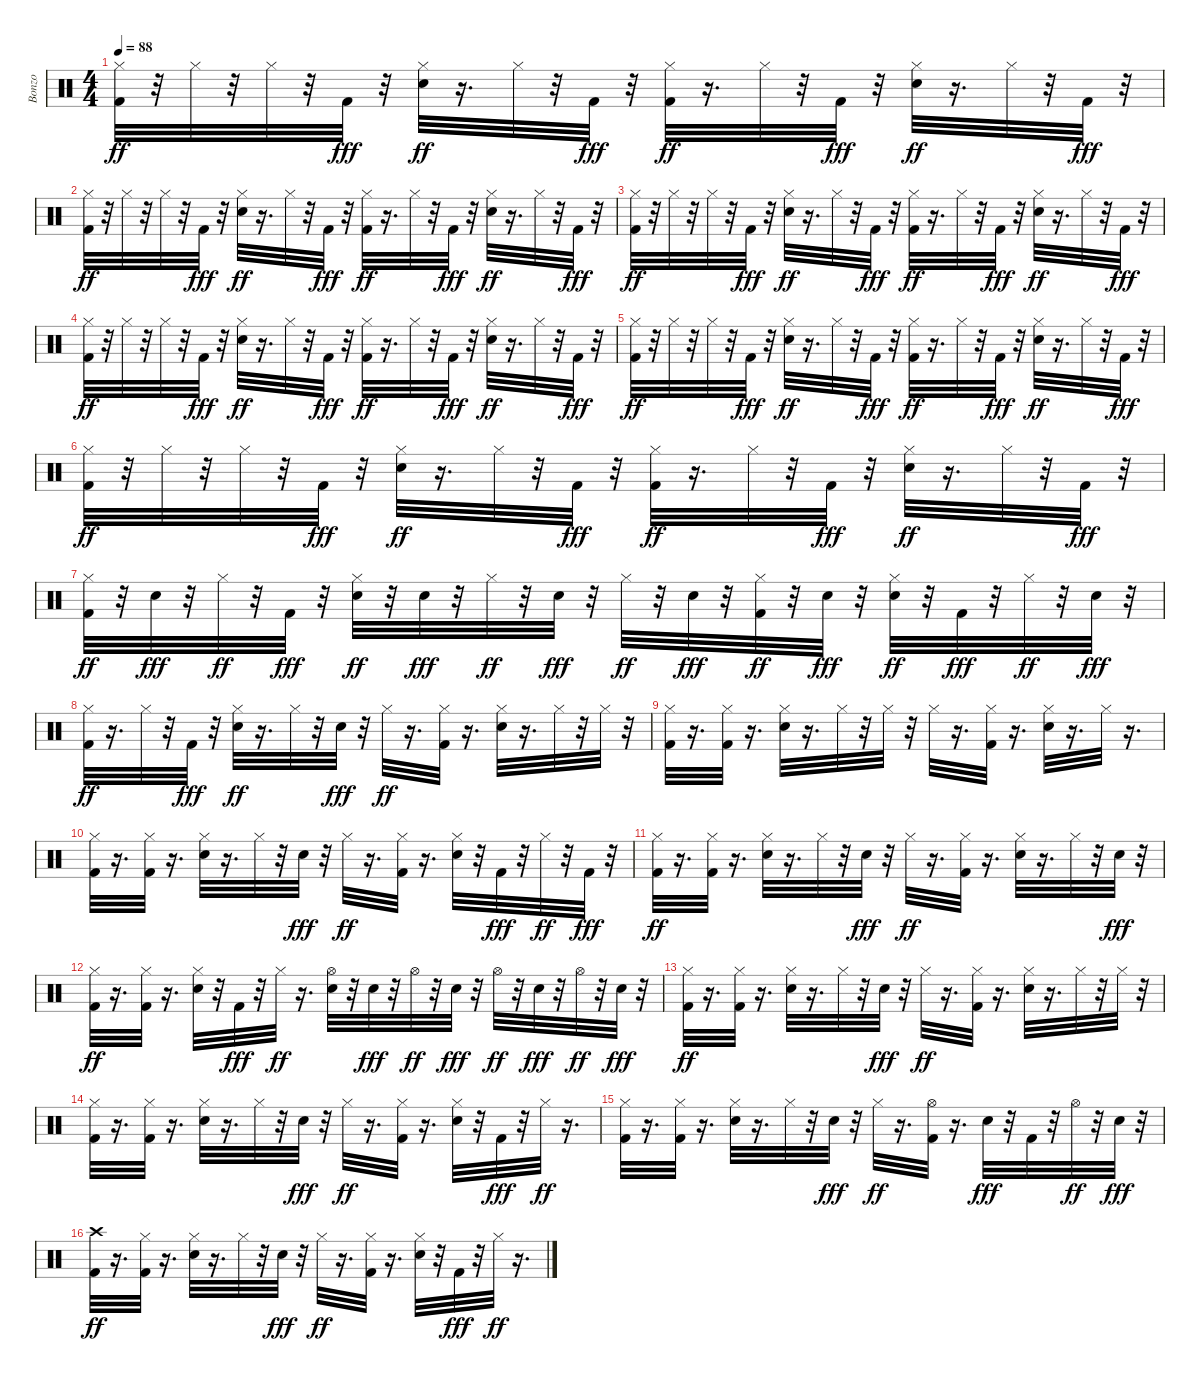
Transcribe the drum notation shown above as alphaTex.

\track ("Bonzo" "Bonzo") {instrument percussion}
\staff {score}
\articulation defaults
\ts (4 4)
\tempo 88
\clef neutral
\ks c
("Kick (hit) 2" "Hi-Hat (closed)").32{dy ff} r.32 "Hi-Hat (closed)".32 r.32 "Hi-Hat (closed)".32 r.32 "Kick (hit) 2".32{dy fff} r.32 ("Snare (hit) 2" "Hi-Hat (closed)").32{dy ff} r.16{d} "Hi-Hat (closed)".32 r.32 "Kick (hit) 2".32{dy fff} r.32 ("Kick (hit) 2" "Hi-Hat (closed)").32{dy ff} r.16{d} "Hi-Hat (closed)".32 r.32 "Kick (hit) 2".32{dy fff} r.32 ("Snare (hit) 2" "Hi-Hat (closed)").32{dy ff} r.16{d} "Hi-Hat (closed)".32 r.32 "Kick (hit) 2".32{dy fff} r.32 |
("Kick (hit) 2" "Hi-Hat (closed)").32{dy ff} r.32 "Hi-Hat (closed)".32 r.32 "Hi-Hat (closed)".32 r.32 "Kick (hit) 2".32{dy fff} r.32 ("Snare (hit) 2" "Hi-Hat (closed)").32{dy ff} r.16{d} "Hi-Hat (closed)".32 r.32 "Kick (hit) 2".32{dy fff} r.32 ("Kick (hit) 2" "Hi-Hat (closed)").32{dy ff} r.16{d} "Hi-Hat (closed)".32 r.32 "Kick (hit) 2".32{dy fff} r.32 ("Snare (hit) 2" "Hi-Hat (closed)").32{dy ff} r.16{d} "Hi-Hat (closed)".32 r.32 "Kick (hit) 2".32{dy fff} r.32 |
("Kick (hit) 2" "Hi-Hat (closed)").32{dy ff} r.32 "Hi-Hat (closed)".32 r.32 "Hi-Hat (closed)".32 r.32 "Kick (hit) 2".32{dy fff} r.32 ("Snare (hit) 2" "Hi-Hat (closed)").32{dy ff} r.16{d} "Hi-Hat (closed)".32 r.32 "Kick (hit) 2".32{dy fff} r.32 ("Kick (hit) 2" "Hi-Hat (closed)").32{dy ff} r.16{d} "Hi-Hat (closed)".32 r.32 "Kick (hit) 2".32{dy fff} r.32 ("Snare (hit) 2" "Hi-Hat (closed)").32{dy ff} r.16{d} "Hi-Hat (closed)".32 r.32 "Kick (hit) 2".32{dy fff} r.32 |
("Kick (hit) 2" "Hi-Hat (closed)").32{dy ff} r.32 "Hi-Hat (closed)".32 r.32 "Hi-Hat (closed)".32 r.32 "Kick (hit) 2".32{dy fff} r.32 ("Snare (hit) 2" "Hi-Hat (closed)").32{dy ff} r.16{d} "Hi-Hat (closed)".32 r.32 "Kick (hit) 2".32{dy fff} r.32 ("Kick (hit) 2" "Hi-Hat (closed)").32{dy ff} r.16{d} "Hi-Hat (closed)".32 r.32 "Kick (hit) 2".32{dy fff} r.32 ("Snare (hit) 2" "Hi-Hat (closed)").32{dy ff} r.16{d} "Hi-Hat (closed)".32 r.32 "Kick (hit) 2".32{dy fff} r.32 |
("Kick (hit) 2" "Hi-Hat (closed)").32{dy ff} r.32 "Hi-Hat (closed)".32 r.32 "Hi-Hat (closed)".32 r.32 "Kick (hit) 2".32{dy fff} r.32 ("Snare (hit) 2" "Hi-Hat (closed)").32{dy ff} r.16{d} "Hi-Hat (closed)".32 r.32 "Kick (hit) 2".32{dy fff} r.32 ("Kick (hit) 2" "Hi-Hat (closed)").32{dy ff} r.16{d} "Hi-Hat (closed)".32 r.32 "Kick (hit) 2".32{dy fff} r.32 ("Snare (hit) 2" "Hi-Hat (closed)").32{dy ff} r.16{d} "Hi-Hat (closed)".32 r.32 "Kick (hit) 2".32{dy fff} r.32 |
("Kick (hit) 2" "Hi-Hat (closed)").32{dy ff} r.32 "Hi-Hat (closed)".32 r.32 "Hi-Hat (closed)".32 r.32 "Kick (hit) 2".32{dy fff} r.32 ("Snare (hit) 2" "Hi-Hat (closed)").32{dy ff} r.16{d} "Hi-Hat (closed)".32 r.32 "Kick (hit) 2".32{dy fff} r.32 ("Kick (hit) 2" "Hi-Hat (closed)").32{dy ff} r.16{d} "Hi-Hat (closed)".32 r.32 "Kick (hit) 2".32{dy fff} r.32 ("Snare (hit) 2" "Hi-Hat (closed)").32{dy ff} r.16{d} "Hi-Hat (closed)".32 r.32 "Kick (hit) 2".32{dy fff} r.32 |
("Kick (hit) 2" "Hi-Hat (closed)").32{dy ff} r.32 "Snare (hit) 2".32{dy fff} r.32 "Hi-Hat (closed)".32{dy ff} r.32 "Kick (hit) 2".32{dy fff} r.32 ("Snare (hit) 2" "Hi-Hat (closed)").32{dy ff} r.32 "Snare (hit) 2".32{dy fff} r.32 "Hi-Hat (closed)".32{dy ff} r.32 "Snare (hit) 2".32{dy fff} r.32 "Hi-Hat (closed)".32{dy ff} r.32 "Snare (hit) 2".32{dy fff} r.32 ("Kick (hit) 2" "Hi-Hat (closed)").32{dy ff} r.32 "Snare (hit) 2".32{dy fff} r.32 ("Snare (hit) 2" "Hi-Hat (closed)").32{dy ff} r.32 "Kick (hit) 2".32{dy fff} r.32 "Hi-Hat (closed)".32{dy ff} r.32 "Snare (hit) 2".32{dy fff} r.32 |
("Kick (hit) 2" "Hi-Hat (closed)").32{dy ff} r.16{d} "Hi-Hat (closed)".32 r.32 "Kick (hit) 2".32{dy fff} r.32 ("Snare (hit) 2" "Hi-Hat (closed)").32{dy ff} r.16{d} "Hi-Hat (closed)".32 r.32 "Snare (hit) 2".32{dy fff} r.32 "Hi-Hat (closed)".32{dy ff} r.16{d} ("Kick (hit) 2" "Hi-Hat (closed)").32 r.16{d} ("Snare (hit) 2" "Hi-Hat (closed)").32 r.16{d} "Hi-Hat (closed)".32 r.32 "Hi-Hat (closed)".32 r.32 |
("Kick (hit) 2" "Hi-Hat (closed)").32 r.16{d} ("Kick (hit) 2" "Hi-Hat (closed)").32 r.16{d} ("Snare (hit) 2" "Hi-Hat (closed)").32 r.16{d} "Hi-Hat (closed)".32 r.32 "Hi-Hat (closed)".32 r.32 "Hi-Hat (closed)".32 r.16{d} ("Kick (hit) 2" "Hi-Hat (closed)").32 r.16{d} ("Snare (hit) 2" "Hi-Hat (closed)").32 r.16{d} "Hi-Hat (closed)".32 r.16{d} |
("Kick (hit) 2" "Hi-Hat (closed)").32 r.16{d} ("Kick (hit) 2" "Hi-Hat (closed)").32 r.16{d} ("Snare (hit) 2" "Hi-Hat (closed)").32 r.16{d} "Hi-Hat (closed)".32 r.32 "Snare (hit) 2".32{dy fff} r.32 "Hi-Hat (closed)".32{dy ff} r.16{d} ("Kick (hit) 2" "Hi-Hat (closed)").32 r.16{d} ("Snare (hit) 2" "Hi-Hat (closed)").32 r.32 "Kick (hit) 2".32{dy fff} r.32 "Hi-Hat (closed)".32{dy ff} r.32 "Kick (hit) 2".32{dy fff} r.32 |
("Kick (hit) 2" "Hi-Hat (closed)").32{dy ff} r.16{d} ("Kick (hit) 2" "Hi-Hat (closed)").32 r.16{d} ("Snare (hit) 2" "Hi-Hat (closed)").32 r.16{d} "Hi-Hat (closed)".32 r.32 "Snare (hit) 2".32{dy fff} r.32 "Hi-Hat (closed)".32{dy ff} r.16{d} ("Kick (hit) 2" "Hi-Hat (closed)").32 r.16{d} ("Snare (hit) 2" "Hi-Hat (closed)").32 r.16{d} "Hi-Hat (closed)".32 r.32 "Snare (hit) 2".32{dy fff} r.32 |
("Kick (hit) 2" "Hi-Hat (closed)").32{dy ff} r.16{d} ("Kick (hit) 2" "Hi-Hat (closed)").32 r.16{d} ("Snare (hit) 2" "Hi-Hat (closed)").32 r.32 "Kick (hit) 2".32{dy fff} r.32 "Hi-Hat (closed)".32{dy ff} r.16{d} ("Snare (hit) 2" "Hi-Hat (open)").32 r.32 "Snare (hit) 2".32{dy fff} r.32 "Hi-Hat (open)".32{dy ff} r.32 "Snare (hit) 2".32{dy fff} r.32 "Hi-Hat (open)".32{dy ff} r.32 "Snare (hit) 2".32{dy fff} r.32 "Hi-Hat (open)".32{dy ff} r.32 "Snare (hit) 2".32{dy fff} r.32 |
("Kick (hit) 2" "Hi-Hat (closed)").32{dy ff} r.16{d} ("Kick (hit) 2" "Hi-Hat (closed)").32 r.16{d} ("Snare (hit) 2" "Hi-Hat (closed)").32 r.16{d} "Hi-Hat (closed)".32 r.32 "Snare (hit) 2".32{dy fff} r.32 "Hi-Hat (closed)".32{dy ff} r.16{d} ("Kick (hit) 2" "Hi-Hat (closed)").32 r.16{d} ("Snare (hit) 2" "Hi-Hat (closed)").32 r.16{d} "Hi-Hat (closed)".32 r.32 "Hi-Hat (closed)".32 r.32 |
("Kick (hit) 2" "Hi-Hat (closed)").32 r.16{d} ("Kick (hit) 2" "Hi-Hat (closed)").32 r.16{d} ("Snare (hit) 2" "Hi-Hat (closed)").32 r.16{d} "Hi-Hat (closed)".32 r.32 "Snare (hit) 2".32{dy fff} r.32 "Hi-Hat (closed)".32{dy ff} r.16{d} ("Kick (hit) 2" "Hi-Hat (closed)").32 r.16{d} ("Snare (hit) 2" "Hi-Hat (closed)").32 r.32 "Kick (hit) 2".32{dy fff} r.32 "Hi-Hat (closed)".32{dy ff} r.16{d} |
("Kick (hit) 2" "Hi-Hat (closed)").32 r.16{d} ("Kick (hit) 2" "Hi-Hat (closed)").32 r.16{d} ("Snare (hit) 2" "Hi-Hat (closed)").32 r.16{d} "Hi-Hat (closed)".32 r.32 "Snare (hit) 2".32{dy fff} r.32 "Hi-Hat (closed)".32{dy ff} r.16{d} ("Kick (hit) 2" "Hi-Hat (open)").32 r.16{d} "Snare (hit) 2".32{dy fff} r.32 "Kick (hit) 2".32 r.32 "Hi-Hat (open)".32{dy ff} r.32 "Snare (hit) 2".32{dy fff} r.32 |
("Kick (hit) 2" "Crash high (hit)").32{dy ff} r.16{d} ("Kick (hit) 2" "Hi-Hat (closed)").32 r.16{d} ("Snare (hit) 2" "Hi-Hat (closed)").32 r.16{d} "Hi-Hat (closed)".32 r.32 "Snare (hit) 2".32{dy fff} r.32 "Hi-Hat (closed)".32{dy ff} r.16{d} ("Kick (hit) 2" "Hi-Hat (closed)").32 r.16{d} ("Snare (hit) 2" "Hi-Hat (closed)").32 r.32 "Kick (hit) 2".32{dy fff} r.32 "Hi-Hat (closed)".32{dy ff} r.16{d}
